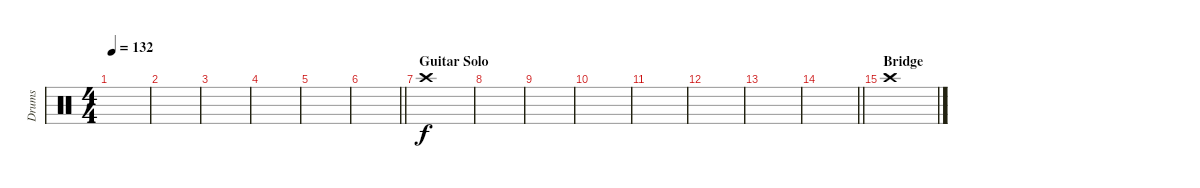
\track ("Drums" "Drums") {instrument percussion}
\staff {score}
\articulation defaults
\ts (4 4)
\tempo 132
\clef neutral
\ks c
|
|
|
|
|
\barLineRight lightlight
|
\section ("" "Guitar Solo")
"Crash high (hit)".1 |
|
|
|
|
|
|
\barLineRight lightlight
|
\section ("" "Bridge")
"Crash high (hit)".1
